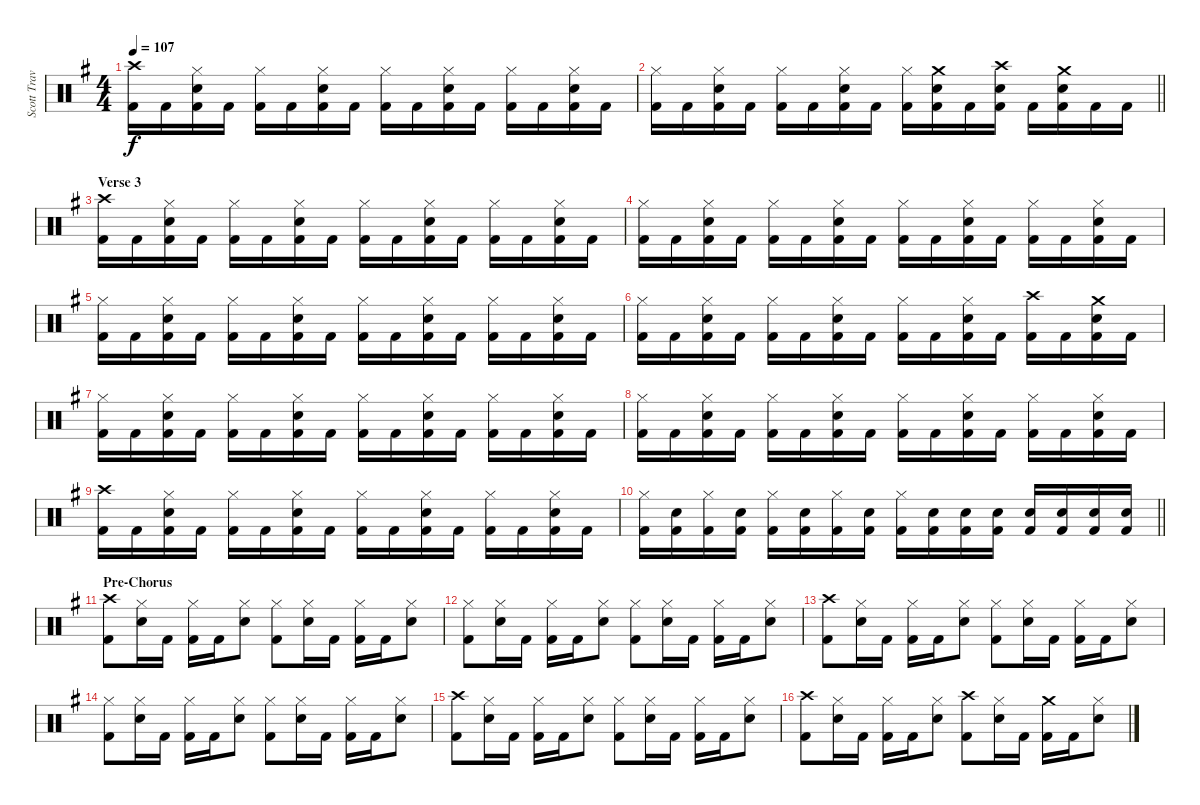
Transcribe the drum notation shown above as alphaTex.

\track ("Scott Travis" "Scott Trav") {instrument percussion}
\staff {score}
\articulation defaults
\ts (4 4)
\tempo 107
\clef neutral
\ks eminor
("Crash high (hit)" "Kick (hit) 2").16{dy f} "Kick (hit) 2".16 ("Hi-Hat (closed)" "Snare (hit) 2" "Kick (hit) 2").16 "Kick (hit) 2".16 ("Hi-Hat (closed)" "Kick (hit) 2").16 "Kick (hit) 2".16 ("Hi-Hat (closed)" "Snare (hit) 2" "Kick (hit) 2").16 "Kick (hit) 2".16 ("Hi-Hat (closed)" "Kick (hit) 2").16 "Kick (hit) 2".16 ("Hi-Hat (closed)" "Snare (hit) 2" "Kick (hit) 2").16 "Kick (hit) 2".16 ("Hi-Hat (closed)" "Kick (hit) 2").16 "Kick (hit) 2".16 ("Hi-Hat (closed)" "Snare (hit) 2" "Kick (hit) 2").16 "Kick (hit) 2".16 |
\barLineRight lightlight
("Hi-Hat (closed)" "Kick (hit) 2").16 "Kick (hit) 2".16 ("Hi-Hat (closed)" "Snare (hit) 2" "Kick (hit) 2").16 "Kick (hit) 2".16 ("Hi-Hat (closed)" "Kick (hit) 2").16 "Kick (hit) 2".16 ("Hi-Hat (closed)" "Snare (hit) 2" "Kick (hit) 2").16 "Kick (hit) 2".16 ("Hi-Hat (closed)" "Kick (hit) 2").16 ("Crash medium (hit)" "Snare (hit) 2" "Kick (hit) 2").16 "Kick (hit) 2".16 ("Crash high (hit)" "Snare (hit) 2" "Kick (hit) 2").16 "Kick (hit) 2".16 ("Crash medium (hit)" "Snare (hit) 2" "Kick (hit) 2").16 "Kick (hit) 2".16 "Kick (hit) 2".16 |
\section ("" "Verse 3")
("Crash high (hit)" "Kick (hit) 2").16 "Kick (hit) 2".16 ("Hi-Hat (closed)" "Snare (hit) 2" "Kick (hit) 2").16 "Kick (hit) 2".16 ("Hi-Hat (closed)" "Kick (hit) 2").16 "Kick (hit) 2".16 ("Hi-Hat (closed)" "Snare (hit) 2" "Kick (hit) 2").16 "Kick (hit) 2".16 ("Hi-Hat (closed)" "Kick (hit) 2").16 "Kick (hit) 2".16 ("Hi-Hat (closed)" "Snare (hit) 2" "Kick (hit) 2").16 "Kick (hit) 2".16 ("Hi-Hat (closed)" "Kick (hit) 2").16 "Kick (hit) 2".16 ("Hi-Hat (closed)" "Snare (hit) 2" "Kick (hit) 2").16 "Kick (hit) 2".16 |
("Hi-Hat (closed)" "Kick (hit) 2").16 "Kick (hit) 2".16 ("Hi-Hat (closed)" "Snare (hit) 2" "Kick (hit) 2").16 "Kick (hit) 2".16 ("Hi-Hat (closed)" "Kick (hit) 2").16 "Kick (hit) 2".16 ("Hi-Hat (closed)" "Snare (hit) 2" "Kick (hit) 2").16 "Kick (hit) 2".16 ("Hi-Hat (closed)" "Kick (hit) 2").16 "Kick (hit) 2".16 ("Hi-Hat (closed)" "Snare (hit) 2" "Kick (hit) 2").16 "Kick (hit) 2".16 ("Hi-Hat (closed)" "Kick (hit) 2").16 "Kick (hit) 2".16 ("Hi-Hat (closed)" "Snare (hit) 2" "Kick (hit) 2").16 "Kick (hit) 2".16 |
("Hi-Hat (closed)" "Kick (hit) 2").16 "Kick (hit) 2".16 ("Hi-Hat (closed)" "Snare (hit) 2" "Kick (hit) 2").16 "Kick (hit) 2".16 ("Hi-Hat (closed)" "Kick (hit) 2").16 "Kick (hit) 2".16 ("Hi-Hat (closed)" "Snare (hit) 2" "Kick (hit) 2").16 "Kick (hit) 2".16 ("Hi-Hat (closed)" "Kick (hit) 2").16 "Kick (hit) 2".16 ("Hi-Hat (closed)" "Snare (hit) 2" "Kick (hit) 2").16 "Kick (hit) 2".16 ("Hi-Hat (closed)" "Kick (hit) 2").16 "Kick (hit) 2".16 ("Hi-Hat (closed)" "Snare (hit) 2" "Kick (hit) 2").16 "Kick (hit) 2".16 |
("Hi-Hat (closed)" "Kick (hit) 2").16 "Kick (hit) 2".16 ("Hi-Hat (closed)" "Snare (hit) 2" "Kick (hit) 2").16 "Kick (hit) 2".16 ("Hi-Hat (closed)" "Kick (hit) 2").16 "Kick (hit) 2".16 ("Hi-Hat (closed)" "Snare (hit) 2" "Kick (hit) 2").16 "Kick (hit) 2".16 ("Hi-Hat (closed)" "Kick (hit) 2").16 "Kick (hit) 2".16 ("Hi-Hat (closed)" "Snare (hit) 2" "Kick (hit) 2").16 "Kick (hit) 2".16 ("Crash high (hit)" "Kick (hit) 2").16 "Kick (hit) 2".16 ("Crash medium (hit)" "Snare (hit) 2" "Kick (hit) 2").16 "Kick (hit) 2".16 |
("Hi-Hat (closed)" "Kick (hit) 2").16 "Kick (hit) 2".16 ("Hi-Hat (closed)" "Snare (hit) 2" "Kick (hit) 2").16 "Kick (hit) 2".16 ("Hi-Hat (closed)" "Kick (hit) 2").16 "Kick (hit) 2".16 ("Hi-Hat (closed)" "Snare (hit) 2" "Kick (hit) 2").16 "Kick (hit) 2".16 ("Hi-Hat (closed)" "Kick (hit) 2").16 "Kick (hit) 2".16 ("Hi-Hat (closed)" "Snare (hit) 2" "Kick (hit) 2").16 "Kick (hit) 2".16 ("Hi-Hat (closed)" "Kick (hit) 2").16 "Kick (hit) 2".16 ("Hi-Hat (closed)" "Snare (hit) 2" "Kick (hit) 2").16 "Kick (hit) 2".16 |
("Hi-Hat (closed)" "Kick (hit) 2").16 "Kick (hit) 2".16 ("Hi-Hat (closed)" "Snare (hit) 2" "Kick (hit) 2").16 "Kick (hit) 2".16 ("Hi-Hat (closed)" "Kick (hit) 2").16 "Kick (hit) 2".16 ("Hi-Hat (closed)" "Snare (hit) 2" "Kick (hit) 2").16 "Kick (hit) 2".16 ("Hi-Hat (closed)" "Kick (hit) 2").16 "Kick (hit) 2".16 ("Hi-Hat (closed)" "Snare (hit) 2" "Kick (hit) 2").16 "Kick (hit) 2".16 ("Hi-Hat (closed)" "Kick (hit) 2").16 "Kick (hit) 2".16 ("Hi-Hat (closed)" "Snare (hit) 2" "Kick (hit) 2").16 "Kick (hit) 2".16 |
("Crash high (hit)" "Kick (hit) 2").16 "Kick (hit) 2".16 ("Hi-Hat (closed)" "Snare (hit) 2" "Kick (hit) 2").16 "Kick (hit) 2".16 ("Hi-Hat (closed)" "Kick (hit) 2").16 "Kick (hit) 2".16 ("Hi-Hat (closed)" "Snare (hit) 2" "Kick (hit) 2").16 "Kick (hit) 2".16 ("Hi-Hat (closed)" "Kick (hit) 2").16 "Kick (hit) 2".16 ("Hi-Hat (closed)" "Snare (hit) 2" "Kick (hit) 2").16 "Kick (hit) 2".16 ("Hi-Hat (closed)" "Kick (hit) 2").16 "Kick (hit) 2".16 ("Hi-Hat (closed)" "Snare (hit) 2" "Kick (hit) 2").16 "Kick (hit) 2".16 |
\barLineRight lightlight
("Hi-Hat (closed)" "Kick (hit) 2").16 ("Snare (hit) 2" "Kick (hit) 2").16 ("Hi-Hat (closed)" "Kick (hit) 2").16 ("Snare (hit) 2" "Kick (hit) 2").16 ("Hi-Hat (closed)" "Kick (hit) 2").16 ("Snare (hit) 2" "Kick (hit) 2").16 ("Hi-Hat (closed)" "Kick (hit) 2").16 ("Snare (hit) 2" "Kick (hit) 2").16 ("Hi-Hat (closed)" "Kick (hit) 2").16 ("Snare (hit) 2" "Kick (hit) 2").16 ("Snare (hit) 2" "Kick (hit) 2").16 ("Snare (hit) 2" "Kick (hit) 2").16 ("Snare (hit) 2" "Kick (hit) 2").16 ("Snare (hit) 2" "Kick (hit) 2").16 ("Snare (hit) 2" "Kick (hit) 2").16 ("Snare (hit) 2" "Kick (hit) 2").16 |
\section ("" "Pre-Chorus")
("Crash high (hit)" "Kick (hit) 2").8 ("Hi-Hat (closed)" "Snare (hit) 2").16 "Kick (hit) 2".16 ("Hi-Hat (closed)" "Kick (hit) 2").16 "Kick (hit) 2".16 ("Hi-Hat (closed)" "Snare (hit) 2").8 ("Hi-Hat (closed)" "Kick (hit) 2").8 ("Hi-Hat (closed)" "Snare (hit) 2").16 "Kick (hit) 2".16 ("Hi-Hat (closed)" "Kick (hit) 2").16 "Kick (hit) 2".16 ("Hi-Hat (closed)" "Snare (hit) 2").8 |
("Hi-Hat (closed)" "Kick (hit) 2").8 ("Hi-Hat (closed)" "Snare (hit) 2").16 "Kick (hit) 2".16 ("Hi-Hat (closed)" "Kick (hit) 2").16 "Kick (hit) 2".16 ("Hi-Hat (closed)" "Snare (hit) 2").8 ("Hi-Hat (closed)" "Kick (hit) 2").8 ("Hi-Hat (closed)" "Snare (hit) 2").16 "Kick (hit) 2".16 ("Hi-Hat (closed)" "Kick (hit) 2").16 "Kick (hit) 2".16 ("Hi-Hat (closed)" "Snare (hit) 2").8 |
("Crash high (hit)" "Kick (hit) 2").8 ("Hi-Hat (closed)" "Snare (hit) 2").16 "Kick (hit) 2".16 ("Hi-Hat (closed)" "Kick (hit) 2").16 "Kick (hit) 2".16 ("Hi-Hat (closed)" "Snare (hit) 2").8 ("Hi-Hat (closed)" "Kick (hit) 2").8 ("Hi-Hat (closed)" "Snare (hit) 2").16 "Kick (hit) 2".16 ("Hi-Hat (closed)" "Kick (hit) 2").16 "Kick (hit) 2".16 ("Hi-Hat (closed)" "Snare (hit) 2").8 |
("Hi-Hat (closed)" "Kick (hit) 2").8 ("Hi-Hat (closed)" "Snare (hit) 2").16 "Kick (hit) 2".16 ("Hi-Hat (closed)" "Kick (hit) 2").16 "Kick (hit) 2".16 ("Hi-Hat (closed)" "Snare (hit) 2").8 ("Hi-Hat (closed)" "Kick (hit) 2").8 ("Hi-Hat (closed)" "Snare (hit) 2").16 "Kick (hit) 2".16 ("Hi-Hat (closed)" "Kick (hit) 2").16 "Kick (hit) 2".16 ("Hi-Hat (closed)" "Snare (hit) 2").8 |
("Crash high (hit)" "Kick (hit) 2").8 ("Hi-Hat (closed)" "Snare (hit) 2").16 "Kick (hit) 2".16 ("Hi-Hat (closed)" "Kick (hit) 2").16 "Kick (hit) 2".16 ("Hi-Hat (closed)" "Snare (hit) 2").8 ("Hi-Hat (closed)" "Kick (hit) 2").8 ("Hi-Hat (closed)" "Snare (hit) 2").16 "Kick (hit) 2".16 ("Hi-Hat (closed)" "Kick (hit) 2").16 "Kick (hit) 2".16 ("Hi-Hat (closed)" "Snare (hit) 2").8 |
("Crash high (hit)" "Kick (hit) 2").8 ("Hi-Hat (closed)" "Snare (hit) 2").16 "Kick (hit) 2".16 ("Hi-Hat (closed)" "Kick (hit) 2").16 "Kick (hit) 2".16 ("Hi-Hat (closed)" "Snare (hit) 2").8 ("Crash high (hit)" "Kick (hit) 2").8 ("Hi-Hat (closed)" "Snare (hit) 2").16 "Kick (hit) 2".16 ("Crash medium (hit)" "Kick (hit) 2").16 "Kick (hit) 2".16 ("Hi-Hat (closed)" "Snare (hit) 2").8
